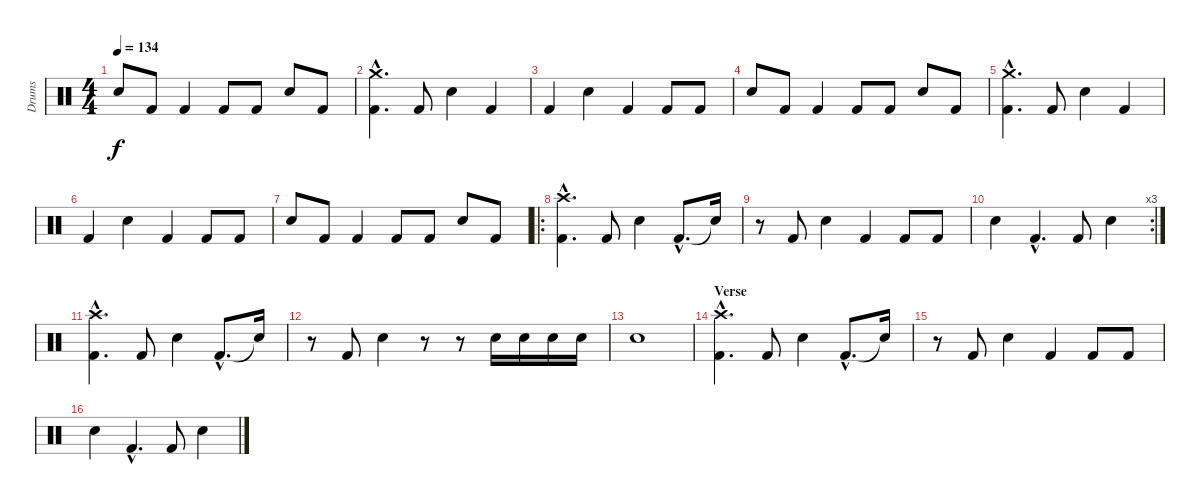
\track ("Drums" "Drums") {instrument percussion}
\staff {score}
\articulation defaults
\ts (4 4)
\tempo 134
\clef neutral
\ks c "Snare (hit) 2".8{dy f} "Kick (hit) 2".8 "Kick (hit) 2".4 "Kick (hit) 2".8 "Kick (hit) 2".8 "Snare (hit) 2".8 "Kick (hit) 2".8
|
("Kick (hit) 2"{hac} "Crash medium (hit)"{hac}).4{d} "Kick (hit) 2".8 "Snare (hit) 2".4 "Kick (hit) 2".4 |
"Kick (hit) 2".4 "Snare (hit) 2".4 "Kick (hit) 2".4 "Kick (hit) 2".8 "Kick (hit) 2".8 |
"Snare (hit) 2".8 "Kick (hit) 2".8 "Kick (hit) 2".4 "Kick (hit) 2".8 "Kick (hit) 2".8 "Snare (hit) 2".8 "Kick (hit) 2".8 |
("Kick (hit) 2"{hac} "Crash medium (hit)"{hac}).4{d} "Kick (hit) 2".8 "Snare (hit) 2".4 "Kick (hit) 2".4 |
"Kick (hit) 2".4 "Snare (hit) 2".4 "Kick (hit) 2".4 "Kick (hit) 2".8 "Kick (hit) 2".8 |
"Snare (hit) 2".8 "Kick (hit) 2".8 "Kick (hit) 2".4 "Kick (hit) 2".8 "Kick (hit) 2".8 "Snare (hit) 2".8 "Kick (hit) 2".8 |
\ro
("Kick (hit) 2"{hac} "Crash high (hit)"{hac}).4{d} "Kick (hit) 2".8 "Snare (hit) 2".4 "Kick (hit) 2"{hac}.8{d} "Snare (hit)"{t}.16 |
r.8 "Kick (hit) 2".8 "Snare (hit) 2".4 "Kick (hit) 2".4 "Kick (hit) 2".8 "Kick (hit) 2".8 |
\rc 3 "Snare (hit) 2".4 "Kick (hit) 2"{hac}.4{d} "Kick (hit) 2".8 "Snare (hit) 2".4
|
("Kick (hit) 2"{hac} "Crash high (hit)"{hac}).4{d} "Kick (hit) 2".8 "Snare (hit) 2".4 "Kick (hit) 2"{hac}.8{d} "Snare (hit)"{t}.16 |
r.8 "Kick (hit) 2".8 "Snare (hit) 2".4 r.8 r.8 "Snare (hit) 2".16 "Snare (hit) 2".16 "Snare (hit) 2".16 "Snare (hit) 2".16 |
"Snare (hit) 2".1 |
\section ("" "Verse")
("Kick (hit) 2"{hac} "Crash high (hit)"{hac}).4{d} "Kick (hit) 2".8 "Snare (hit) 2".4 "Kick (hit) 2"{hac}.8{d} "Snare (hit)"{t}.16 |
r.8 "Kick (hit) 2".8 "Snare (hit) 2".4 "Kick (hit) 2".4 "Kick (hit) 2".8 "Kick (hit) 2".8 |
"Snare (hit) 2".4 "Kick (hit) 2"{hac}.4{d} "Kick (hit) 2".8 "Snare (hit) 2".4
